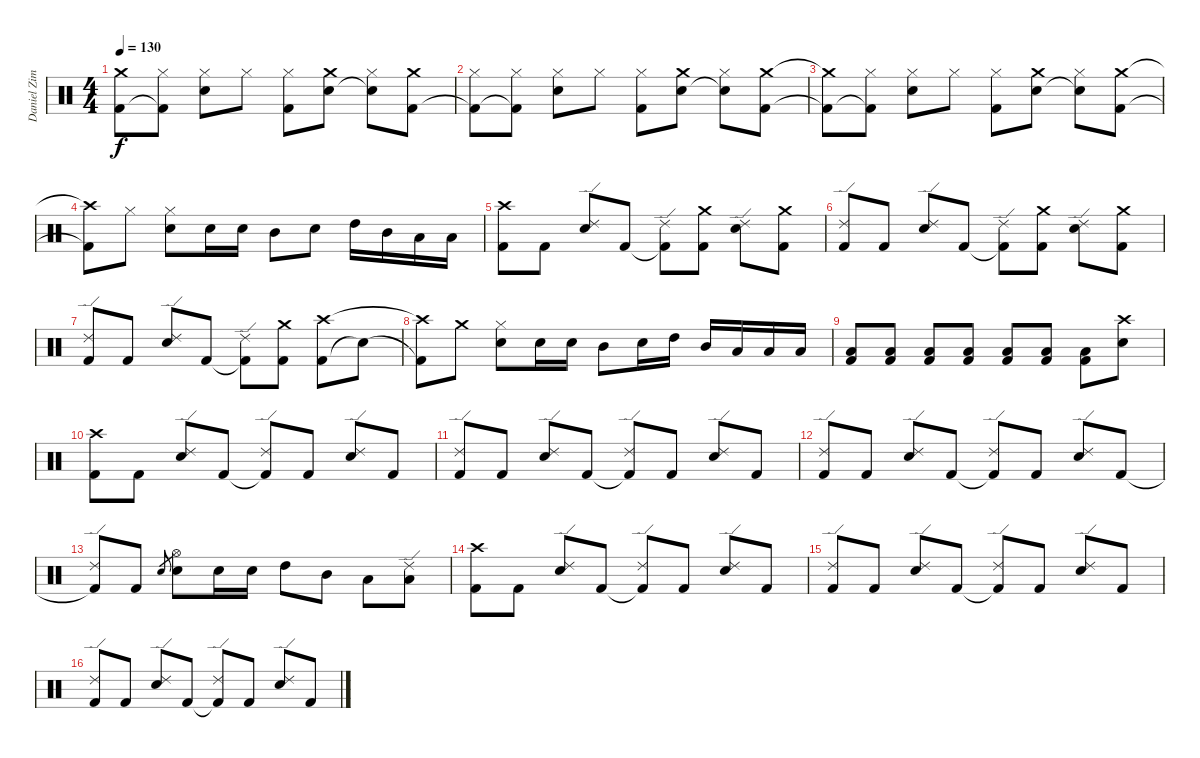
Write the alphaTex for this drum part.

\track ("Daniel Zimmermann" "Daniel Zim") {instrument percussion}
\staff {score}
\articulation defaults
\ts (4 4)
\tempo 130
\clef neutral
\ks c
("Kick (hit) 2" "Crash medium (hit)").8{dy f} ("Kick (hit) 2"{t} "Hi-Hat (closed)").8 ("Electric Snare (hit)" "Hi-Hat (closed)").8 "Hi-Hat (closed)".8 ("Kick (hit) 2" "Hi-Hat (closed)").8 ("Electric Snare (hit)" "Crash medium (hit)").8 ("Electric Snare (hit)"{t} "Hi-Hat (closed)").8 ("Kick (hit) 2" "Crash medium (hit)").8 |
("Kick (hit) 2"{t} "Hi-Hat (closed)").8 ("Kick (hit) 2"{t} "Hi-Hat (closed)").8 ("Electric Snare (hit)" "Hi-Hat (closed)").8 "Hi-Hat (closed)".8 ("Kick (hit) 2" "Hi-Hat (closed)").8 ("Electric Snare (hit)" "Crash medium (hit)").8 ("Electric Snare (hit)"{t} "Hi-Hat (closed)").8 ("Kick (hit) 2" "Crash medium (hit)").8 |
("Kick (hit) 2"{t} "Crash medium (hit)"{t}).8 ("Kick (hit) 2"{t} "Hi-Hat (closed)").8 ("Electric Snare (hit)" "Hi-Hat (closed)").8 "Hi-Hat (closed)".8 ("Kick (hit) 2" "Hi-Hat (closed)").8 ("Electric Snare (hit)" "Crash medium (hit)").8 ("Electric Snare (hit)"{t} "Hi-Hat (closed)").8 ("Kick (hit) 2" "Crash medium (hit)").8 |
("Kick (hit) 2"{t} "Crash high (hit)"{t}).8 "Hi-Hat (closed)".8 ("Electric Snare (hit)" "Hi-Hat (closed)").8 "Electric Snare (hit)".16 "Electric Snare (hit)".16 "Mid Tom (hit)".8 "Electric Snare (hit)".8 "High Tom (hit)".16 "Mid Tom (hit)".16 "Low Tom (hit)".16 "Low Floor Tom (hit)".16 |
("Kick (hit) 2" "Crash high (hit)").8 "Kick (hit) 2".8 ("Electric Snare (hit)" "Ride (edge) 2").8 "Kick (hit) 2".8 ("Kick (hit) 2"{t} "Ride (edge) 2").8 ("Kick (hit) 2" "Crash medium (hit)").8 ("Electric Snare (hit)" "Ride (edge) 2").8 ("Kick (hit) 2" "Crash medium (hit)").8 |
("Kick (hit) 2" "Ride (edge) 2").8 "Kick (hit) 2".8 ("Electric Snare (hit)" "Ride (edge) 2").8 "Kick (hit) 2".8 ("Kick (hit) 2"{t} "Ride (edge) 2").8 ("Kick (hit) 2" "Crash medium (hit)").8 ("Electric Snare (hit)" "Ride (edge) 2").8 ("Kick (hit) 2" "Crash medium (hit)").8 |
("Kick (hit) 2" "Ride (edge) 2").8 "Kick (hit) 2".8 ("Electric Snare (hit)" "Ride (edge) 2").8 "Kick (hit) 2".8 ("Kick (hit) 2"{t} "Ride (edge) 2").8 ("Kick (hit) 2" "Crash medium (hit)").8 ("Kick (hit) 2" "Crash high (hit)").8 "Snare (hit)"{t}.8 |
("Kick (hit) 2"{t} "Crash high (hit)"{t}).8 "Crash medium (hit)".8 ("Electric Snare (hit)" "Hi-Hat (closed)").8 "Electric Snare (hit)".16 "Electric Snare (hit)".16 "Mid Tom (hit)".8 "Electric Snare (hit)".16 "High Tom (hit)".16 "Mid Tom (hit)".16 "Low Tom (hit)".16 "Low Floor Tom (hit)".16 "Low Floor Tom (hit)".16 |
("Kick (hit) 2" "Low Floor Tom (hit)").8 ("Kick (hit) 2" "Low Floor Tom (hit)").8 ("Kick (hit) 2" "Low Floor Tom (hit)").8 ("Kick (hit) 2" "Low Floor Tom (hit)").8 ("Kick (hit) 2" "Low Floor Tom (hit)").8 ("Kick (hit) 2" "Low Floor Tom (hit)").8 ("Kick (hit) 2" "Low Tom (hit)").8 ("Electric Snare (hit)" "Crash high (hit)").8 |
("Kick (hit) 2" "Crash high (hit)").8 "Kick (hit) 2".8 ("Electric Snare (hit)" "Ride (edge) 2").8 "Kick (hit) 2".8 ("Kick (hit) 2"{t} "Ride (edge) 2").8 "Kick (hit) 2".8 ("Electric Snare (hit)" "Ride (edge) 2").8 "Kick (hit) 2".8 |
("Kick (hit) 2" "Ride (edge) 2").8 "Kick (hit) 2".8 ("Electric Snare (hit)" "Ride (edge) 2").8 "Kick (hit) 2".8 ("Kick (hit) 2"{t} "Ride (edge) 2").8 "Kick (hit) 2".8 ("Electric Snare (hit)" "Ride (edge) 2").8 "Kick (hit) 2".8 |
("Kick (hit) 2" "Ride (edge) 2").8 "Kick (hit) 2".8 ("Electric Snare (hit)" "Ride (edge) 2").8 "Kick (hit) 2".8 ("Kick (hit) 2"{t} "Ride (edge) 2").8 "Kick (hit) 2".8 ("Electric Snare (hit)" "Ride (edge) 2").8 "Kick (hit) 2".8 |
("Kick (hit) 2"{t} "Ride (edge) 2").8 "Kick (hit) 2".8 "Electric Snare (hit)".8{gr} ("Electric Snare (hit)" "Hi-Hat (open)").8 "Electric Snare (hit)".16 "Electric Snare (hit)".16 "High Tom (hit)".8 "Mid Tom (hit)".8 "Low Tom (hit)".8 ("Low Floor Tom (hit)" "Ride (edge) 2").8 |
("Kick (hit) 2" "Crash high (hit)").8 "Kick (hit) 2".8 ("Electric Snare (hit)" "Ride (edge) 2").8 "Kick (hit) 2".8 ("Kick (hit) 2"{t} "Ride (edge) 2").8 "Kick (hit) 2".8 ("Electric Snare (hit)" "Ride (edge) 2").8 "Kick (hit) 2".8 |
("Kick (hit) 2" "Ride (edge) 2").8 "Kick (hit) 2".8 ("Electric Snare (hit)" "Ride (edge) 2").8 "Kick (hit) 2".8 ("Kick (hit) 2"{t} "Ride (edge) 2").8 "Kick (hit) 2".8 ("Electric Snare (hit)" "Ride (edge) 2").8 "Kick (hit) 2".8 |
("Kick (hit) 2" "Ride (edge) 2").8 "Kick (hit) 2".8 ("Electric Snare (hit)" "Ride (edge) 2").8 "Kick (hit) 2".8 ("Kick (hit) 2"{t} "Ride (edge) 2").8 "Kick (hit) 2".8 ("Electric Snare (hit)" "Ride (edge) 2").8 "Kick (hit) 2".8
